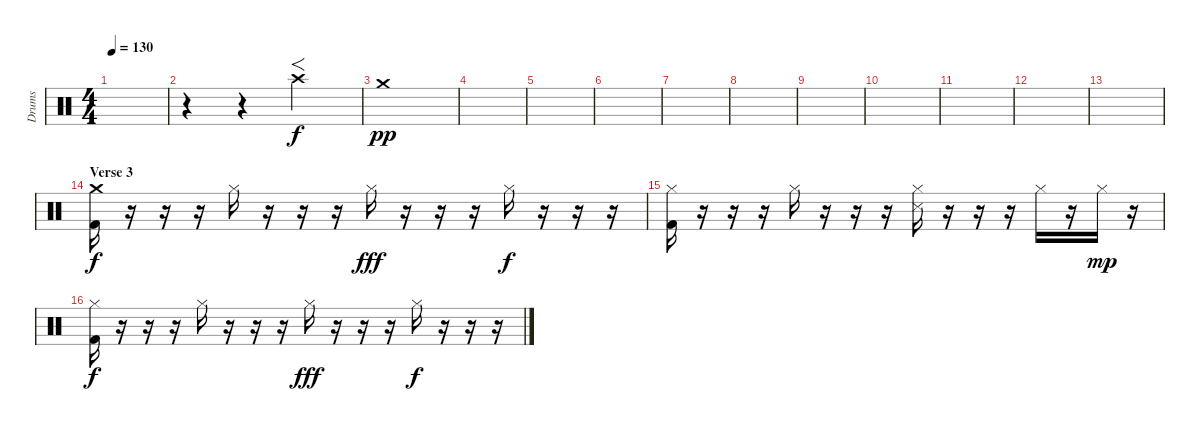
\track ("Drums" "Drums") {instrument percussion}
\staff {score}
\articulation defaults
\ts (4 4)
\tempo 130
\clef neutral
\ks c
|
r.4 r.4 "Crash high (hit)".2{f} |
"Crash medium (hit)".1{dy pp} |
|
|
|
|
|
|
|
|
|
|
\section ("" "Verse 3")
("Crash medium (hit)" "Kick (hit) 2").16{dy f} r.16 r.16 r.16 "Hi-Hat (closed)".16 r.16 r.16 r.16 "Hi-Hat (closed)".16{dy fff} r.16 r.16 r.16 "Hi-Hat (closed)".16{dy f} r.16 r.16 r.16 |
("Hi-Hat (closed)" "Kick (hit) 2").16 r.16 r.16 r.16 "Hi-Hat (closed)".16 r.16 r.16 r.16 ("Hi-Hat (closed)" "Snare (side stick) 3").16 r.16 r.16 r.16 "Hi-Hat (closed)".16 r.16 "Hi-Hat (closed)".16{dy mp} r.16 |
("Hi-Hat (closed)" "Kick (hit) 2").16{dy f} r.16 r.16 r.16 "Hi-Hat (closed)".16 r.16 r.16 r.16 "Hi-Hat (closed)".16{dy fff} r.16 r.16 r.16 "Hi-Hat (closed)".16{dy f} r.16 r.16 r.16
